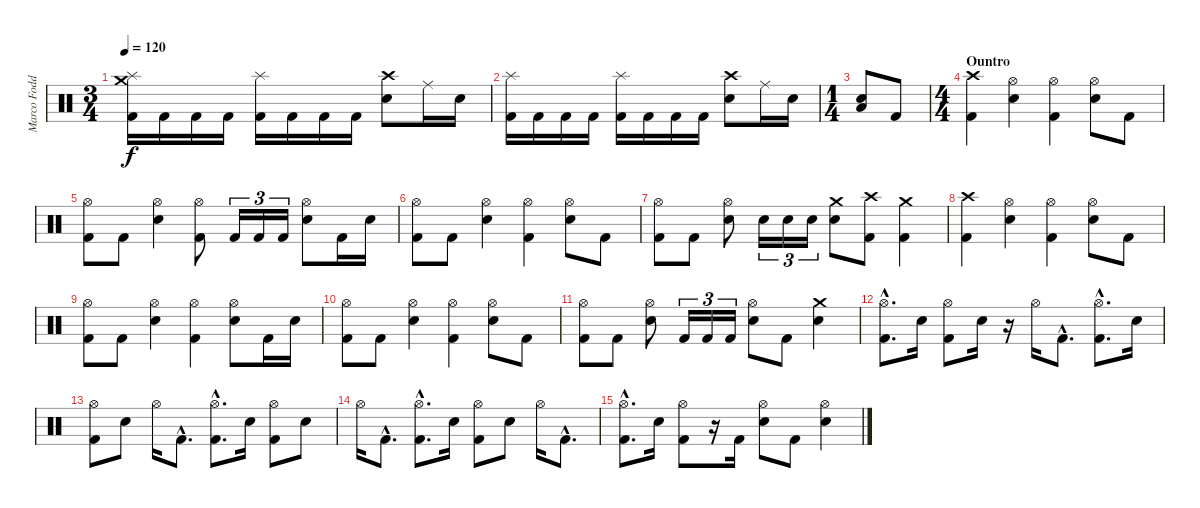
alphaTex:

\track ("Marco Foddis " "Marco Fodd") {instrument percussion}
\staff {score}
\articulation defaults
\ts (3 4)
\tempo 120
\clef neutral
\ks c
("Crash medium (hit)" "Splash (hit)" "Kick (hit) 2").16{dy f} "Kick (hit) 2".16 "Kick (hit) 2".16 "Kick (hit) 2".16 ("Splash (hit)" "Kick (hit) 2").16 "Kick (hit) 2".16 "Kick (hit) 2".16 "Kick (hit) 2".16 ("Crash high (hit)" "Electric Snare (hit)").8 "Ride (middle)".16 "Electric Snare (hit)".16 |
("Splash (hit)" "Kick (hit) 2").16 "Kick (hit) 2".16 "Kick (hit) 2".16 "Kick (hit) 2".16 ("Splash (hit)" "Kick (hit) 2").16 "Kick (hit) 2".16 "Kick (hit) 2".16 "Kick (hit) 2".16 ("Crash high (hit)" "Electric Snare (hit)").8 "Ride (middle)".16 "Electric Snare (hit)".16 |
\ts (1 4)
("Low Floor Tom (hit)" "Electric Snare (hit)").8 "Kick (hit) 2".8 |
\ts (4 4)
\section ("" "Ountro")
("Crash high (hit)" "Kick (hit) 2").4 ("Hi-Hat (open)" "Electric Snare (hit)").4 ("Hi-Hat (open)" "Kick (hit) 2").4 ("Hi-Hat (open)" "Electric Snare (hit)").8 "Kick (hit) 2".8 |
("Hi-Hat (open)" "Kick (hit) 2").8 "Kick (hit) 2".8 ("Hi-Hat (open)" "Electric Snare (hit)").4 ("Hi-Hat (open)" "Kick (hit) 2").8 "Kick (hit) 2".16{tu (3 2)} "Kick (hit) 2".16{tu (3 2)} "Kick (hit) 2".16{tu (3 2)} ("Hi-Hat (open)" "Electric Snare (hit)").8 "Kick (hit) 2".16 "Electric Snare (hit)".16 |
("Hi-Hat (open)" "Kick (hit) 2").8 "Kick (hit) 2".8 ("Hi-Hat (open)" "Electric Snare (hit)").4 ("Hi-Hat (open)" "Kick (hit) 2").4 ("Hi-Hat (open)" "Electric Snare (hit)").8 "Kick (hit) 2".8 |
("Hi-Hat (open)" "Kick (hit) 2").8 "Kick (hit) 2".8 ("Hi-Hat (open)" "Electric Snare (hit)").8 "Electric Snare (hit)".16{tu (3 2)} "Electric Snare (hit)".16{tu (3 2)} "Electric Snare (hit)".16{tu (3 2)} ("Crash medium (hit)" "Electric Snare (hit)").8 ("Crash high (hit)" "Kick (hit) 2").8 ("Crash medium (hit)" "Kick (hit) 2").4 |
("Crash high (hit)" "Kick (hit) 2").4 ("Hi-Hat (open)" "Electric Snare (hit)").4 ("Hi-Hat (open)" "Kick (hit) 2").4 ("Hi-Hat (open)" "Electric Snare (hit)").8 "Kick (hit) 2".8 |
("Hi-Hat (open)" "Kick (hit) 2").8 "Kick (hit) 2".8 ("Hi-Hat (open)" "Electric Snare (hit)").4 ("Hi-Hat (open)" "Kick (hit) 2").4 ("Hi-Hat (open)" "Electric Snare (hit)").8 "Kick (hit) 2".16 "Electric Snare (hit)".16 |
("Hi-Hat (open)" "Kick (hit) 2").8 "Kick (hit) 2".8 ("Hi-Hat (open)" "Electric Snare (hit)").4 ("Hi-Hat (open)" "Kick (hit) 2").4 ("Hi-Hat (open)" "Electric Snare (hit)").8 "Kick (hit) 2".8 |
("Hi-Hat (open)" "Kick (hit) 2").8 "Kick (hit) 2".8 ("Hi-Hat (open)" "Electric Snare (hit)").8 "Kick (hit) 2".16{tu (3 2)} "Kick (hit) 2".16{tu (3 2)} "Kick (hit) 2".16{tu (3 2)} ("Hi-Hat (open)" "Electric Snare (hit)").8 "Kick (hit) 2".8 ("Crash medium (hit)" "Electric Snare (hit)").4 |
("Hi-Hat (open)"{hac} "Kick (hit) 2"{hac}).8{d} "Electric Snare (hit)".16 ("Hi-Hat (open)" "Kick (hit) 2").8 "Electric Snare (hit)".16 r.16 "Hi-Hat (open)".16 "Kick (hit) 2"{hac}.8{d} ("Hi-Hat (open)"{hac} "Kick (hit) 2"{hac}).8{d} "Electric Snare (hit)".16 |
("Hi-Hat (open)" "Kick (hit) 2").8 "Electric Snare (hit)".8 "Hi-Hat (open)".16 "Kick (hit) 2"{hac}.8{d} ("Hi-Hat (open)"{hac} "Kick (hit) 2"{hac}).8{d} "Electric Snare (hit)".16 ("Hi-Hat (open)" "Kick (hit) 2").8 "Electric Snare (hit)".8 |
"Hi-Hat (open)".16 "Kick (hit) 2"{hac}.8{d} ("Hi-Hat (open)"{hac} "Kick (hit) 2"{hac}).8{d} "Electric Snare (hit)".16 ("Hi-Hat (open)" "Kick (hit) 2").8 "Electric Snare (hit)".8 "Hi-Hat (open)".16 "Kick (hit) 2"{hac}.8{d} |
("Hi-Hat (open)"{hac} "Kick (hit) 2"{hac}).8{d} "Electric Snare (hit)".16 ("Hi-Hat (open)" "Kick (hit) 2").8 r.16 "Kick (hit) 2".16 ("Hi-Hat (open)" "Electric Snare (hit)").8 "Kick (hit) 2".8 ("Hi-Hat (open)" "Electric Snare (hit)").4
